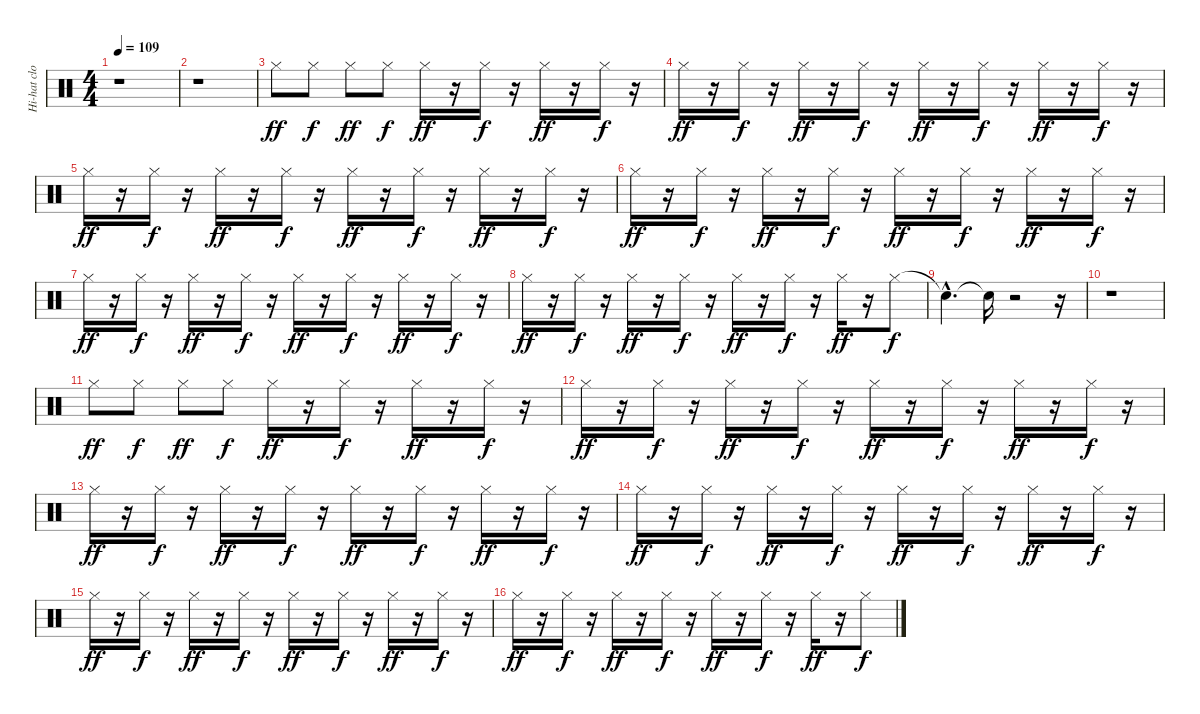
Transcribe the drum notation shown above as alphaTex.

\track ("Hi-hat closed" "Hi-hat clo") {instrument percussion}
\staff {score}
\articulation defaults
\ts (4 4)
\tempo 109
\clef neutral
\ks c
r.1{dy ff} |
r.1 |
"Hi-Hat (closed)".8 "Hi-Hat (closed)".8{dy f} "Hi-Hat (closed)".8{dy ff} "Hi-Hat (closed)".8{dy f} "Hi-Hat (closed)".16{dy ff} r.16 "Hi-Hat (closed)".16{dy f} r.16 "Hi-Hat (closed)".16{dy ff} r.16 "Hi-Hat (closed)".16{dy f} r.16 |
"Hi-Hat (closed)".16{dy ff} r.16 "Hi-Hat (closed)".16{dy f} r.16 "Hi-Hat (closed)".16{dy ff} r.16 "Hi-Hat (closed)".16{dy f} r.16 "Hi-Hat (closed)".16{dy ff} r.16 "Hi-Hat (closed)".16{dy f} r.16 "Hi-Hat (closed)".16{dy ff} r.16 "Hi-Hat (closed)".16{dy f} r.16 |
"Hi-Hat (closed)".16{dy ff} r.16 "Hi-Hat (closed)".16{dy f} r.16 "Hi-Hat (closed)".16{dy ff} r.16 "Hi-Hat (closed)".16{dy f} r.16 "Hi-Hat (closed)".16{dy ff} r.16 "Hi-Hat (closed)".16{dy f} r.16 "Hi-Hat (closed)".16{dy ff} r.16 "Hi-Hat (closed)".16{dy f} r.16 |
"Hi-Hat (closed)".16{dy ff} r.16 "Hi-Hat (closed)".16{dy f} r.16 "Hi-Hat (closed)".16{dy ff} r.16 "Hi-Hat (closed)".16{dy f} r.16 "Hi-Hat (closed)".16{dy ff} r.16 "Hi-Hat (closed)".16{dy f} r.16 "Hi-Hat (closed)".16{dy ff} r.16 "Hi-Hat (closed)".16{dy f} r.16 |
"Hi-Hat (closed)".16{dy ff} r.16 "Hi-Hat (closed)".16{dy f} r.16 "Hi-Hat (closed)".16{dy ff} r.16 "Hi-Hat (closed)".16{dy f} r.16 "Hi-Hat (closed)".16{dy ff} r.16 "Hi-Hat (closed)".16{dy f} r.16 "Hi-Hat (closed)".16{dy ff} r.16 "Hi-Hat (closed)".16{dy f} r.16 |
"Hi-Hat (closed)".16{dy ff} r.16 "Hi-Hat (closed)".16{dy f} r.16 "Hi-Hat (closed)".16{dy ff} r.16 "Hi-Hat (closed)".16{dy f} r.16 "Hi-Hat (closed)".16{dy ff} r.16 "Hi-Hat (closed)".16{dy f} r.16 "Hi-Hat (closed)".16{dy ff} r.16 "Hi-Hat (closed)".8{dy f} |
"Snare (hit)"{hac t}.4{d} "Snare (hit)"{t}.16 r.2 r.16 |
r.1 |
"Hi-Hat (closed)".8{dy ff} "Hi-Hat (closed)".8{dy f} "Hi-Hat (closed)".8{dy ff} "Hi-Hat (closed)".8{dy f} "Hi-Hat (closed)".16{dy ff} r.16 "Hi-Hat (closed)".16{dy f} r.16 "Hi-Hat (closed)".16{dy ff} r.16 "Hi-Hat (closed)".16{dy f} r.16 |
"Hi-Hat (closed)".16{dy ff} r.16 "Hi-Hat (closed)".16{dy f} r.16 "Hi-Hat (closed)".16{dy ff} r.16 "Hi-Hat (closed)".16{dy f} r.16 "Hi-Hat (closed)".16{dy ff} r.16 "Hi-Hat (closed)".16{dy f} r.16 "Hi-Hat (closed)".16{dy ff} r.16 "Hi-Hat (closed)".16{dy f} r.16 |
"Hi-Hat (closed)".16{dy ff} r.16 "Hi-Hat (closed)".16{dy f} r.16 "Hi-Hat (closed)".16{dy ff} r.16 "Hi-Hat (closed)".16{dy f} r.16 "Hi-Hat (closed)".16{dy ff} r.16 "Hi-Hat (closed)".16{dy f} r.16 "Hi-Hat (closed)".16{dy ff} r.16 "Hi-Hat (closed)".16{dy f} r.16 |
"Hi-Hat (closed)".16{dy ff} r.16 "Hi-Hat (closed)".16{dy f} r.16 "Hi-Hat (closed)".16{dy ff} r.16 "Hi-Hat (closed)".16{dy f} r.16 "Hi-Hat (closed)".16{dy ff} r.16 "Hi-Hat (closed)".16{dy f} r.16 "Hi-Hat (closed)".16{dy ff} r.16 "Hi-Hat (closed)".16{dy f} r.16 |
"Hi-Hat (closed)".16{dy ff} r.16 "Hi-Hat (closed)".16{dy f} r.16 "Hi-Hat (closed)".16{dy ff} r.16 "Hi-Hat (closed)".16{dy f} r.16 "Hi-Hat (closed)".16{dy ff} r.16 "Hi-Hat (closed)".16{dy f} r.16 "Hi-Hat (closed)".16{dy ff} r.16 "Hi-Hat (closed)".16{dy f} r.16 |
"Hi-Hat (closed)".16{dy ff} r.16 "Hi-Hat (closed)".16{dy f} r.16 "Hi-Hat (closed)".16{dy ff} r.16 "Hi-Hat (closed)".16{dy f} r.16 "Hi-Hat (closed)".16{dy ff} r.16 "Hi-Hat (closed)".16{dy f} r.16 "Hi-Hat (closed)".16{dy ff} r.16 "Hi-Hat (closed)".8{dy f}
